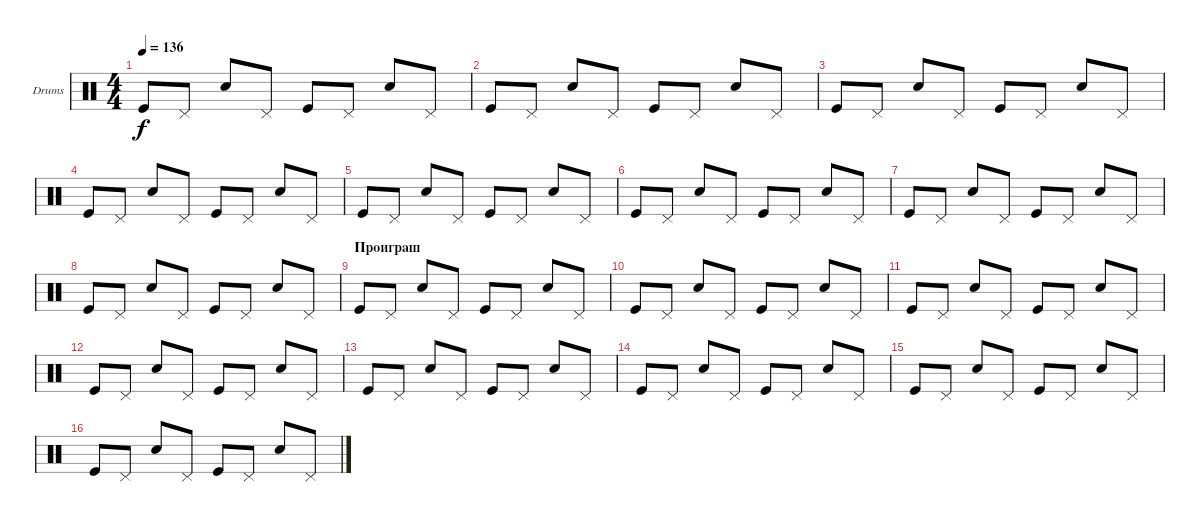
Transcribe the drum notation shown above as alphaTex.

\defaultSystemsLayout 4
\bracketExtendMode groupsimilarinstruments
\firstSystemTrackNameOrientation horizontal
\otherSystemsTrackNameOrientation horizontal
\track ("Е. Кулаков" "Drums") {instrument percussion}
\staff {score}
\articulation defaults
\ts (4 4)
\tempo 136
\clef neutral
\ks c "Kick (hit)".8{dy f} "Pedal Hi-Hat (hit)".8 "Snare (hit) 2".8 "Pedal Hi-Hat (hit)".8 "Kick (hit)".8 "Pedal Hi-Hat (hit)".8 "Snare (hit) 2".8 "Pedal Hi-Hat (hit)".8
|
"Kick (hit)".8 "Pedal Hi-Hat (hit)".8 "Snare (hit) 2".8 "Pedal Hi-Hat (hit)".8 "Kick (hit)".8 "Pedal Hi-Hat (hit)".8 "Snare (hit) 2".8 "Pedal Hi-Hat (hit)".8 |
"Kick (hit)".8 "Pedal Hi-Hat (hit)".8 "Snare (hit) 2".8 "Pedal Hi-Hat (hit)".8 "Kick (hit)".8 "Pedal Hi-Hat (hit)".8 "Snare (hit) 2".8 "Pedal Hi-Hat (hit)".8 |
"Kick (hit)".8 "Pedal Hi-Hat (hit)".8 "Snare (hit) 2".8 "Pedal Hi-Hat (hit)".8 "Kick (hit)".8 "Pedal Hi-Hat (hit)".8 "Snare (hit) 2".8 "Pedal Hi-Hat (hit)".8 |
"Kick (hit)".8 "Pedal Hi-Hat (hit)".8 "Snare (hit) 2".8 "Pedal Hi-Hat (hit)".8 "Kick (hit)".8 "Pedal Hi-Hat (hit)".8 "Snare (hit) 2".8 "Pedal Hi-Hat (hit)".8 |
"Kick (hit)".8 "Pedal Hi-Hat (hit)".8 "Snare (hit) 2".8 "Pedal Hi-Hat (hit)".8 "Kick (hit)".8 "Pedal Hi-Hat (hit)".8 "Snare (hit) 2".8 "Pedal Hi-Hat (hit)".8 |
"Kick (hit)".8 "Pedal Hi-Hat (hit)".8 "Snare (hit) 2".8 "Pedal Hi-Hat (hit)".8 "Kick (hit)".8 "Pedal Hi-Hat (hit)".8 "Snare (hit) 2".8 "Pedal Hi-Hat (hit)".8 |
"Kick (hit)".8 "Pedal Hi-Hat (hit)".8 "Snare (hit) 2".8 "Pedal Hi-Hat (hit)".8 "Kick (hit)".8 "Pedal Hi-Hat (hit)".8 "Snare (hit) 2".8 "Pedal Hi-Hat (hit)".8 |
\section ("" "Проиграш")
"Kick (hit)".8 "Pedal Hi-Hat (hit)".8 "Snare (hit) 2".8 "Pedal Hi-Hat (hit)".8 "Kick (hit)".8 "Pedal Hi-Hat (hit)".8 "Snare (hit) 2".8 "Pedal Hi-Hat (hit)".8 |
"Kick (hit)".8 "Pedal Hi-Hat (hit)".8 "Snare (hit) 2".8 "Pedal Hi-Hat (hit)".8 "Kick (hit)".8 "Pedal Hi-Hat (hit)".8 "Snare (hit) 2".8 "Pedal Hi-Hat (hit)".8 |
"Kick (hit)".8 "Pedal Hi-Hat (hit)".8 "Snare (hit) 2".8 "Pedal Hi-Hat (hit)".8 "Kick (hit)".8 "Pedal Hi-Hat (hit)".8 "Snare (hit) 2".8 "Pedal Hi-Hat (hit)".8 |
"Kick (hit)".8 "Pedal Hi-Hat (hit)".8 "Snare (hit) 2".8 "Pedal Hi-Hat (hit)".8 "Kick (hit)".8 "Pedal Hi-Hat (hit)".8 "Snare (hit) 2".8 "Pedal Hi-Hat (hit)".8 |
"Kick (hit)".8 "Pedal Hi-Hat (hit)".8 "Snare (hit) 2".8 "Pedal Hi-Hat (hit)".8 "Kick (hit)".8 "Pedal Hi-Hat (hit)".8 "Snare (hit) 2".8 "Pedal Hi-Hat (hit)".8 |
"Kick (hit)".8 "Pedal Hi-Hat (hit)".8 "Snare (hit) 2".8 "Pedal Hi-Hat (hit)".8 "Kick (hit)".8 "Pedal Hi-Hat (hit)".8 "Snare (hit) 2".8 "Pedal Hi-Hat (hit)".8 |
"Kick (hit)".8 "Pedal Hi-Hat (hit)".8 "Snare (hit) 2".8 "Pedal Hi-Hat (hit)".8 "Kick (hit)".8 "Pedal Hi-Hat (hit)".8 "Snare (hit) 2".8 "Pedal Hi-Hat (hit)".8 |
"Kick (hit)".8 "Pedal Hi-Hat (hit)".8 "Snare (hit) 2".8 "Pedal Hi-Hat (hit)".8 "Kick (hit)".8 "Pedal Hi-Hat (hit)".8 "Snare (hit) 2".8 "Pedal Hi-Hat (hit)".8
